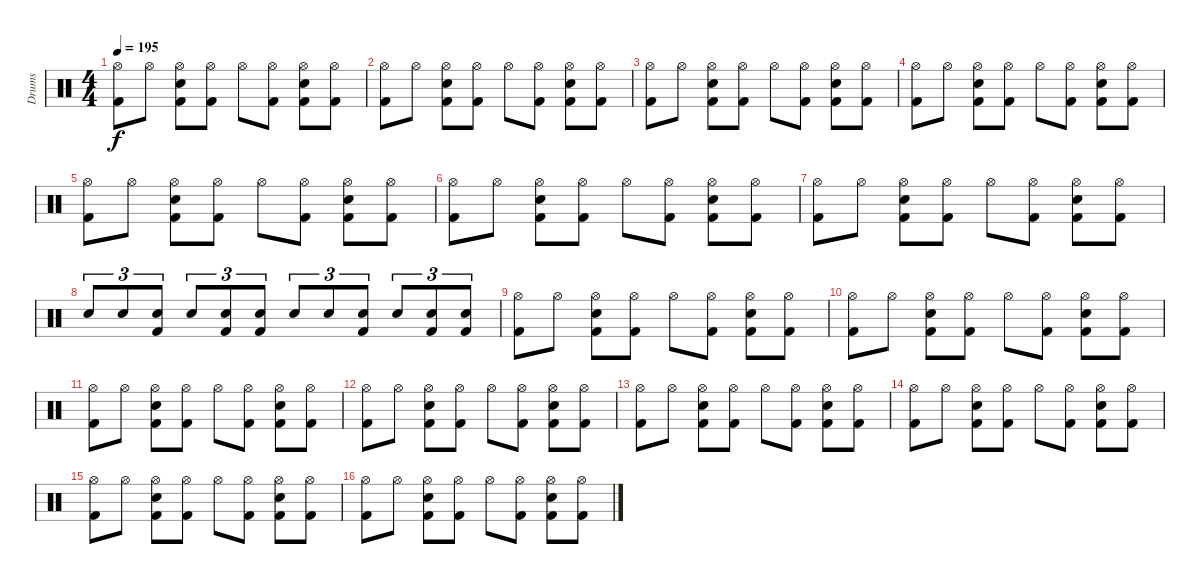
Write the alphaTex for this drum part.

\track ("Drums" "Drums") {instrument percussion}
\staff {score}
\articulation defaults
\ts (4 4)
\tempo 195
\clef neutral
\ks c
("Hi-Hat (open)" "Kick (hit) 2").8{dy f} "Hi-Hat (open)".8 ("Electric Snare (hit)" "Hi-Hat (open)" "Kick (hit) 2").8 ("Hi-Hat (open)" "Kick (hit) 2").8 "Hi-Hat (open)".8 ("Hi-Hat (open)" "Kick (hit) 2").8 ("Electric Snare (hit)" "Hi-Hat (open)" "Kick (hit) 2").8 ("Hi-Hat (open)" "Kick (hit) 2").8 |
("Hi-Hat (open)" "Kick (hit) 2").8 "Hi-Hat (open)".8 ("Electric Snare (hit)" "Hi-Hat (open)" "Kick (hit) 2").8 ("Hi-Hat (open)" "Kick (hit) 2").8 "Hi-Hat (open)".8 ("Hi-Hat (open)" "Kick (hit) 2").8 ("Electric Snare (hit)" "Hi-Hat (open)" "Kick (hit) 2").8 ("Hi-Hat (open)" "Kick (hit) 2").8 |
("Hi-Hat (open)" "Kick (hit) 2").8 "Hi-Hat (open)".8 ("Electric Snare (hit)" "Hi-Hat (open)" "Kick (hit) 2").8 ("Hi-Hat (open)" "Kick (hit) 2").8 "Hi-Hat (open)".8 ("Hi-Hat (open)" "Kick (hit) 2").8 ("Electric Snare (hit)" "Hi-Hat (open)" "Kick (hit) 2").8 ("Hi-Hat (open)" "Kick (hit) 2").8 |
("Hi-Hat (open)" "Kick (hit) 2").8 "Hi-Hat (open)".8 ("Electric Snare (hit)" "Hi-Hat (open)" "Kick (hit) 2").8 ("Hi-Hat (open)" "Kick (hit) 2").8 "Hi-Hat (open)".8 ("Hi-Hat (open)" "Kick (hit) 2").8 ("Electric Snare (hit)" "Hi-Hat (open)" "Kick (hit) 2").8 ("Hi-Hat (open)" "Kick (hit) 2").8 |
("Hi-Hat (open)" "Kick (hit) 2").8 "Hi-Hat (open)".8 ("Electric Snare (hit)" "Hi-Hat (open)" "Kick (hit) 2").8 ("Hi-Hat (open)" "Kick (hit) 2").8 "Hi-Hat (open)".8 ("Hi-Hat (open)" "Kick (hit) 2").8 ("Electric Snare (hit)" "Hi-Hat (open)" "Kick (hit) 2").8 ("Hi-Hat (open)" "Kick (hit) 2").8 |
("Hi-Hat (open)" "Kick (hit) 2").8 "Hi-Hat (open)".8 ("Electric Snare (hit)" "Hi-Hat (open)" "Kick (hit) 2").8 ("Hi-Hat (open)" "Kick (hit) 2").8 "Hi-Hat (open)".8 ("Hi-Hat (open)" "Kick (hit) 2").8 ("Electric Snare (hit)" "Hi-Hat (open)" "Kick (hit) 2").8 ("Hi-Hat (open)" "Kick (hit) 2").8 |
("Hi-Hat (open)" "Kick (hit) 2").8 "Hi-Hat (open)".8 ("Electric Snare (hit)" "Hi-Hat (open)" "Kick (hit) 2").8 ("Hi-Hat (open)" "Kick (hit) 2").8 "Hi-Hat (open)".8 ("Hi-Hat (open)" "Kick (hit) 2").8 ("Electric Snare (hit)" "Hi-Hat (open)" "Kick (hit) 2").8 ("Hi-Hat (open)" "Kick (hit) 2").8 |
"Electric Snare (hit)".8{tu (3 2)} "Electric Snare (hit)".8{tu (3 2)} ("Electric Snare (hit)" "Kick (hit) 2").8{tu (3 2)} "Electric Snare (hit)".8{tu (3 2)} ("Electric Snare (hit)" "Kick (hit) 2").8{tu (3 2)} ("Electric Snare (hit)" "Kick (hit) 2").8{tu (3 2)} "Electric Snare (hit)".8{tu (3 2)} "Electric Snare (hit)".8{tu (3 2)} ("Electric Snare (hit)" "Kick (hit) 2").8{tu (3 2)} "Electric Snare (hit)".8{tu (3 2)} ("Electric Snare (hit)" "Kick (hit) 2").8{tu (3 2)} ("Electric Snare (hit)" "Kick (hit) 2").8{tu (3 2)} |
("Hi-Hat (open)" "Kick (hit) 2").8 "Hi-Hat (open)".8 ("Electric Snare (hit)" "Hi-Hat (open)" "Kick (hit) 2").8 ("Hi-Hat (open)" "Kick (hit) 2").8 "Hi-Hat (open)".8 ("Hi-Hat (open)" "Kick (hit) 2").8 ("Electric Snare (hit)" "Hi-Hat (open)" "Kick (hit) 2").8 ("Hi-Hat (open)" "Kick (hit) 2").8 |
("Hi-Hat (open)" "Kick (hit) 2").8 "Hi-Hat (open)".8 ("Electric Snare (hit)" "Hi-Hat (open)" "Kick (hit) 2").8 ("Hi-Hat (open)" "Kick (hit) 2").8 "Hi-Hat (open)".8 ("Hi-Hat (open)" "Kick (hit) 2").8 ("Electric Snare (hit)" "Hi-Hat (open)" "Kick (hit) 2").8 ("Hi-Hat (open)" "Kick (hit) 2").8 |
("Hi-Hat (open)" "Kick (hit) 2").8 "Hi-Hat (open)".8 ("Electric Snare (hit)" "Hi-Hat (open)" "Kick (hit) 2").8 ("Hi-Hat (open)" "Kick (hit) 2").8 "Hi-Hat (open)".8 ("Hi-Hat (open)" "Kick (hit) 2").8 ("Electric Snare (hit)" "Hi-Hat (open)" "Kick (hit) 2").8 ("Hi-Hat (open)" "Kick (hit) 2").8 |
("Hi-Hat (open)" "Kick (hit) 2").8 "Hi-Hat (open)".8 ("Electric Snare (hit)" "Hi-Hat (open)" "Kick (hit) 2").8 ("Hi-Hat (open)" "Kick (hit) 2").8 "Hi-Hat (open)".8 ("Hi-Hat (open)" "Kick (hit) 2").8 ("Electric Snare (hit)" "Hi-Hat (open)" "Kick (hit) 2").8 ("Hi-Hat (open)" "Kick (hit) 2").8 |
("Hi-Hat (open)" "Kick (hit) 2").8 "Hi-Hat (open)".8 ("Electric Snare (hit)" "Hi-Hat (open)" "Kick (hit) 2").8 ("Hi-Hat (open)" "Kick (hit) 2").8 "Hi-Hat (open)".8 ("Hi-Hat (open)" "Kick (hit) 2").8 ("Electric Snare (hit)" "Hi-Hat (open)" "Kick (hit) 2").8 ("Hi-Hat (open)" "Kick (hit) 2").8 |
("Hi-Hat (open)" "Kick (hit) 2").8 "Hi-Hat (open)".8 ("Electric Snare (hit)" "Hi-Hat (open)" "Kick (hit) 2").8 ("Hi-Hat (open)" "Kick (hit) 2").8 "Hi-Hat (open)".8 ("Hi-Hat (open)" "Kick (hit) 2").8 ("Electric Snare (hit)" "Hi-Hat (open)" "Kick (hit) 2").8 ("Hi-Hat (open)" "Kick (hit) 2").8 |
("Hi-Hat (open)" "Kick (hit) 2").8 "Hi-Hat (open)".8 ("Electric Snare (hit)" "Hi-Hat (open)" "Kick (hit) 2").8 ("Hi-Hat (open)" "Kick (hit) 2").8 "Hi-Hat (open)".8 ("Hi-Hat (open)" "Kick (hit) 2").8 ("Electric Snare (hit)" "Hi-Hat (open)" "Kick (hit) 2").8 ("Hi-Hat (open)" "Kick (hit) 2").8 |
("Hi-Hat (open)" "Kick (hit) 2").8 "Hi-Hat (open)".8 ("Electric Snare (hit)" "Hi-Hat (open)" "Kick (hit) 2").8 ("Hi-Hat (open)" "Kick (hit) 2").8 "Hi-Hat (open)".8 ("Hi-Hat (open)" "Kick (hit) 2").8 ("Electric Snare (hit)" "Hi-Hat (open)" "Kick (hit) 2").8 ("Hi-Hat (open)" "Kick (hit) 2").8
